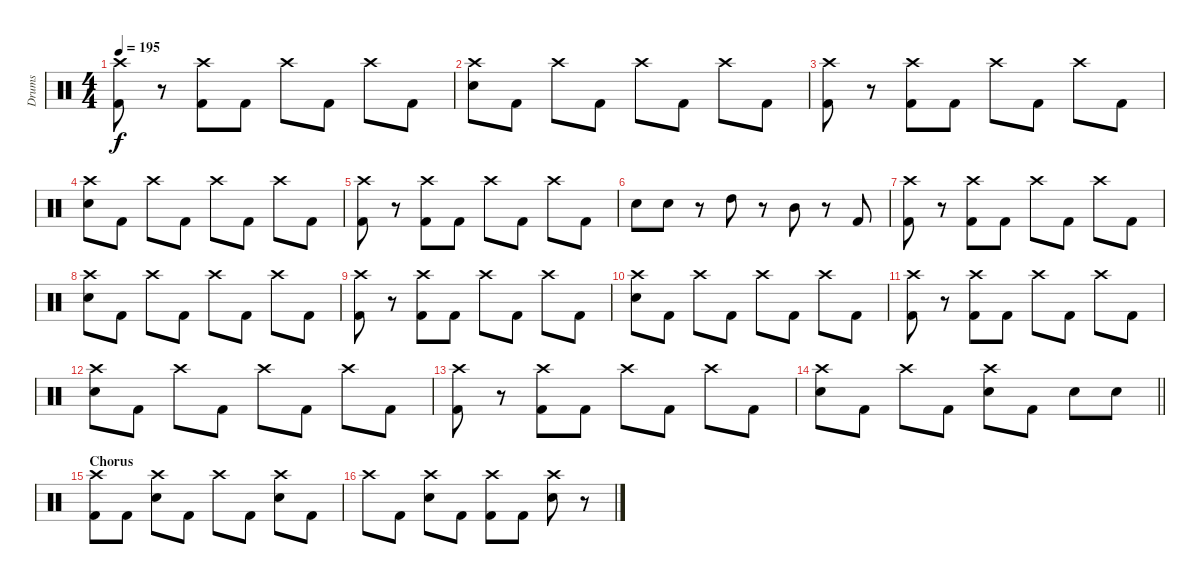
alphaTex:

\track ("Drums" "Drums") {instrument percussion}
\staff {score}
\articulation defaults
\ts (4 4)
\tempo 195
\clef neutral
\ks c
("Crash high (hit)" "Kick (hit) 2").8{dy f} r.8 ("Crash high (hit)" "Kick (hit) 2").8 "Kick (hit) 2".8 "Crash high (hit)".8 "Kick (hit) 2".8 "Crash high (hit)".8 "Kick (hit) 2".8 |
("Crash high (hit)" "Snare (hit) 2").8 "Kick (hit) 2".8 "Crash high (hit)".8 "Kick (hit) 2".8 "Crash high (hit)".8 "Kick (hit) 2".8 "Crash high (hit)".8 "Kick (hit) 2".8 |
("Crash high (hit)" "Kick (hit) 2").8 r.8 ("Crash high (hit)" "Kick (hit) 2").8 "Kick (hit) 2".8 "Crash high (hit)".8 "Kick (hit) 2".8 "Crash high (hit)".8 "Kick (hit) 2".8 |
("Crash high (hit)" "Snare (hit) 2").8 "Kick (hit) 2".8 "Crash high (hit)".8 "Kick (hit) 2".8 "Crash high (hit)".8 "Kick (hit) 2".8 "Crash high (hit)".8 "Kick (hit) 2".8 |
("Crash high (hit)" "Kick (hit) 2").8 r.8 ("Crash high (hit)" "Kick (hit) 2").8 "Kick (hit) 2".8 "Crash high (hit)".8 "Kick (hit) 2".8 "Crash high (hit)".8 "Kick (hit) 2".8 |
"Snare (hit) 2".8 "Snare (hit) 2".8 r.8 "High Tom (hit)".8 r.8 "Mid Tom (hit)".8 r.8 "Kick (hit) 2".8 |
("Crash high (hit)" "Kick (hit) 2").8 r.8 ("Crash high (hit)" "Kick (hit) 2").8 "Kick (hit) 2".8 "Crash high (hit)".8 "Kick (hit) 2".8 "Crash high (hit)".8 "Kick (hit) 2".8 |
("Crash high (hit)" "Snare (hit) 2").8 "Kick (hit) 2".8 "Crash high (hit)".8 "Kick (hit) 2".8 "Crash high (hit)".8 "Kick (hit) 2".8 "Crash high (hit)".8 "Kick (hit) 2".8 |
("Crash high (hit)" "Kick (hit) 2").8 r.8 ("Crash high (hit)" "Kick (hit) 2").8 "Kick (hit) 2".8 "Crash high (hit)".8 "Kick (hit) 2".8 "Crash high (hit)".8 "Kick (hit) 2".8 |
("Crash high (hit)" "Snare (hit) 2").8 "Kick (hit) 2".8 "Crash high (hit)".8 "Kick (hit) 2".8 "Crash high (hit)".8 "Kick (hit) 2".8 "Crash high (hit)".8 "Kick (hit) 2".8 |
("Crash high (hit)" "Kick (hit) 2").8 r.8 ("Crash high (hit)" "Kick (hit) 2").8 "Kick (hit) 2".8 "Crash high (hit)".8 "Kick (hit) 2".8 "Crash high (hit)".8 "Kick (hit) 2".8 |
("Crash high (hit)" "Snare (hit) 2").8 "Kick (hit) 2".8 "Crash high (hit)".8 "Kick (hit) 2".8 "Crash high (hit)".8 "Kick (hit) 2".8 "Crash high (hit)".8 "Kick (hit) 2".8 |
("Crash high (hit)" "Kick (hit) 2").8 r.8 ("Crash high (hit)" "Kick (hit) 2").8 "Kick (hit) 2".8 "Crash high (hit)".8 "Kick (hit) 2".8 "Crash high (hit)".8 "Kick (hit) 2".8 |
\barLineRight lightlight
("Crash high (hit)" "Snare (hit) 2").8 "Kick (hit) 2".8 "Crash high (hit)".8 "Kick (hit) 2".8 ("Crash high (hit)" "Snare (hit) 2").8 "Kick (hit) 2".8 "Snare (hit) 2".8 "Snare (hit) 2".8 |
\section ("" "Chorus")
("Crash high (hit)" "Kick (hit) 2").8 "Kick (hit) 2".8 ("Crash high (hit)" "Snare (hit) 2").8 "Kick (hit) 2".8 "Crash high (hit)".8 "Kick (hit) 2".8 ("Crash high (hit)" "Snare (hit) 2").8 "Kick (hit) 2".8 |
"Crash high (hit)".8 "Kick (hit) 2".8 ("Crash high (hit)" "Snare (hit) 2").8 "Kick (hit) 2".8 ("Crash high (hit)" "Kick (hit) 2").8 "Kick (hit) 2".8 ("Crash high (hit)" "Snare (hit) 2").8 r.8
